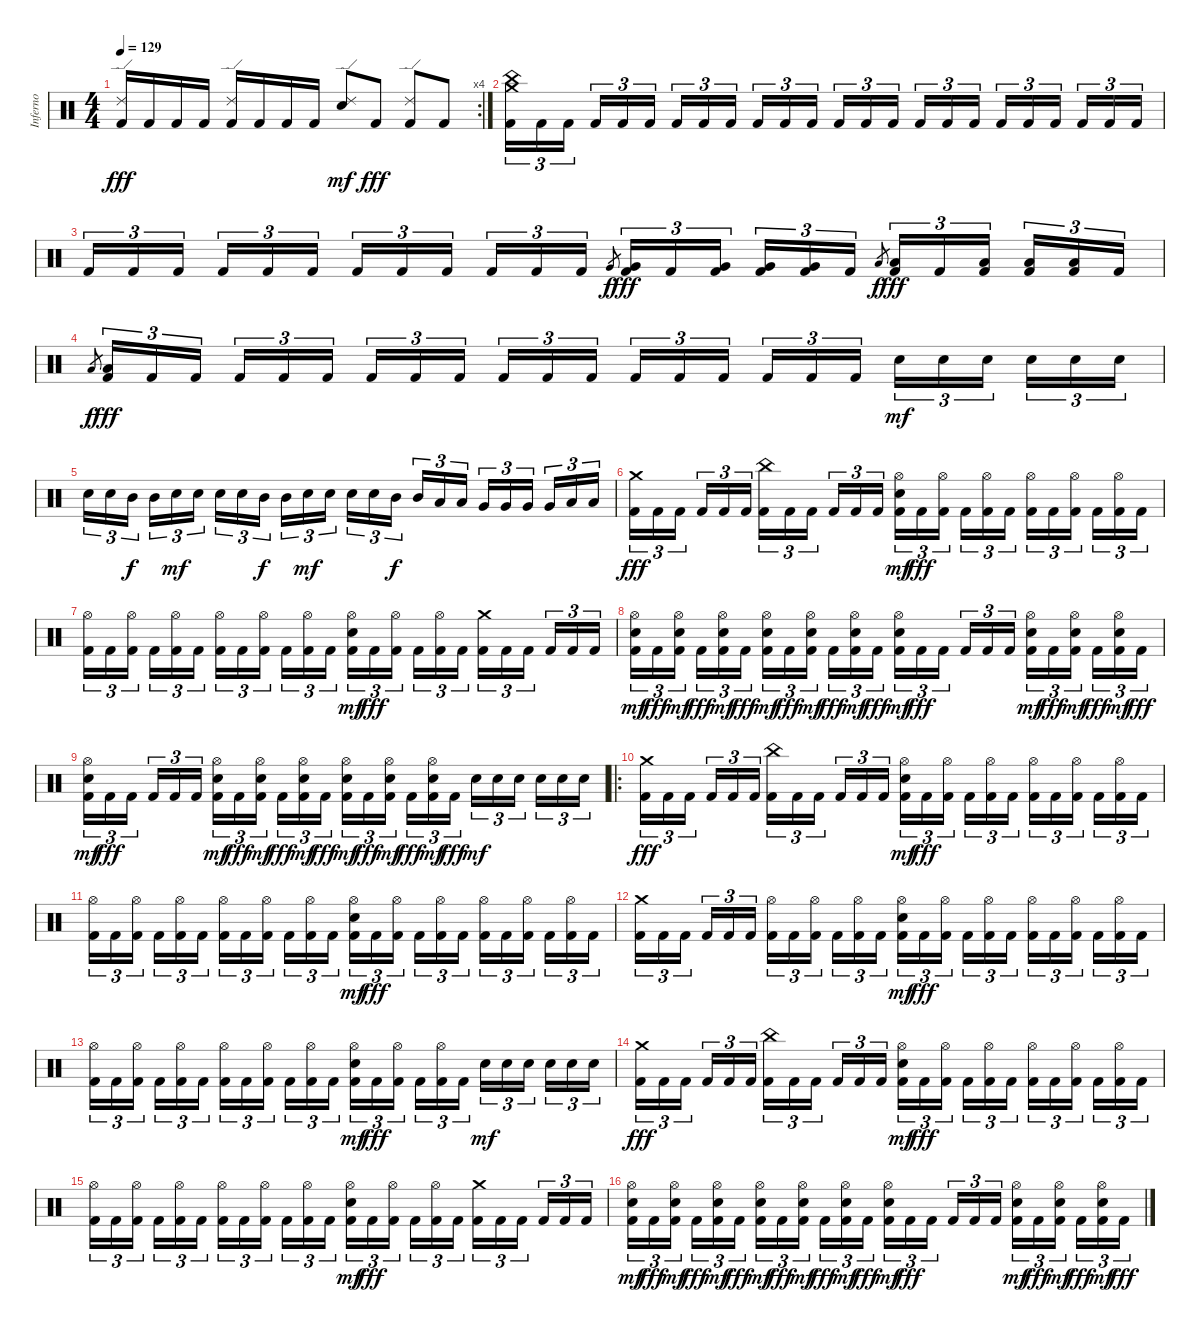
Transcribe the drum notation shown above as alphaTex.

\track ("Inferno" "Inferno") {instrument percussion}
\staff {score}
\articulation defaults
\rc 4
\ts (4 4)
\tempo 129
\clef neutral
\ks c
("Kick (hit) 2" "Ride (edge) 2").16{dy fff} "Kick (hit) 2".16 "Kick (hit) 2".16 "Kick (hit) 2".16 ("Kick (hit) 2" "Ride (edge) 2").16 "Kick (hit) 2".16 "Kick (hit) 2".16 "Kick (hit) 2".16 ("Electric Snare (hit)" "Ride (edge) 2").8{dy mf} "Kick (hit) 2".8{dy fff} ("Kick (hit) 2" "Ride (edge) 2").8 "Kick (hit) 2".8 |
("Kick (hit) 2" "Crash medium (hit)" "China (hit)").16{tu (3 2)} "Kick (hit) 2".16{tu (3 2)} "Kick (hit) 2".16{tu (3 2) beam splitsecondary} "Kick (hit) 2".16{tu (3 2)} "Kick (hit) 2".16{tu (3 2)} "Kick (hit) 2".16{tu (3 2)} "Kick (hit) 2".16{tu (3 2)} "Kick (hit) 2".16{tu (3 2)} "Kick (hit) 2".16{tu (3 2) beam splitsecondary} "Kick (hit) 2".16{tu (3 2)} "Kick (hit) 2".16{tu (3 2)} "Kick (hit) 2".16{tu (3 2)} "Kick (hit) 2".16{tu (3 2)} "Kick (hit) 2".16{tu (3 2)} "Kick (hit) 2".16{tu (3 2) beam splitsecondary} "Kick (hit) 2".16{tu (3 2)} "Kick (hit) 2".16{tu (3 2)} "Kick (hit) 2".16{tu (3 2)} "Kick (hit) 2".16{tu (3 2)} "Kick (hit) 2".16{tu (3 2)} "Kick (hit) 2".16{tu (3 2) beam splitsecondary} "Kick (hit) 2".16{tu (3 2)} "Kick (hit) 2".16{tu (3 2)} "Kick (hit) 2".16{tu (3 2)} |
"Kick (hit) 2".16{tu (3 2)} "Kick (hit) 2".16{tu (3 2)} "Kick (hit) 2".16{tu (3 2) beam splitsecondary} "Kick (hit) 2".16{tu (3 2)} "Kick (hit) 2".16{tu (3 2)} "Kick (hit) 2".16{tu (3 2)} "Kick (hit) 2".16{tu (3 2)} "Kick (hit) 2".16{tu (3 2)} "Kick (hit) 2".16{tu (3 2) beam splitsecondary} "Kick (hit) 2".16{tu (3 2)} "Kick (hit) 2".16{tu (3 2)} "Kick (hit) 2".16{tu (3 2)} "Very Low Tom (hit)".8{gr dy f} ("Kick (hit) 2" "Very Low Tom (hit)").16{tu (3 2) dy fff} "Kick (hit) 2".16{tu (3 2)} ("Kick (hit) 2" "Very Low Tom (hit)").16{tu (3 2) beam splitsecondary} ("Kick (hit) 2" "Very Low Tom (hit)").16{tu (3 2)} ("Kick (hit) 2" "Very Low Tom (hit)").16{tu (3 2)} "Kick (hit) 2".16{tu (3 2)} "Low Floor Tom (hit)".8{gr dy f} ("Kick (hit) 2" "Low Floor Tom (hit)").16{tu (3 2) dy fff} "Kick (hit) 2".16{tu (3 2)} ("Kick (hit) 2" "Low Floor Tom (hit)").16{tu (3 2) beam splitsecondary} ("Kick (hit) 2" "Low Floor Tom (hit)").16{tu (3 2)} ("Kick (hit) 2" "Low Floor Tom (hit)").16{tu (3 2)} "Kick (hit) 2".16{tu (3 2)} |
"Low Floor Tom (hit)".8{gr dy f} ("Kick (hit) 2" "Low Floor Tom (hit)").16{tu (3 2) dy fff} "Kick (hit) 2".16{tu (3 2)} "Kick (hit) 2".16{tu (3 2) beam splitsecondary} "Kick (hit) 2".16{tu (3 2)} "Kick (hit) 2".16{tu (3 2)} "Kick (hit) 2".16{tu (3 2)} "Kick (hit) 2".16{tu (3 2)} "Kick (hit) 2".16{tu (3 2)} "Kick (hit) 2".16{tu (3 2) beam splitsecondary} "Kick (hit) 2".16{tu (3 2)} "Kick (hit) 2".16{tu (3 2)} "Kick (hit) 2".16{tu (3 2)} "Kick (hit) 2".16{tu (3 2)} "Kick (hit) 2".16{tu (3 2)} "Kick (hit) 2".16{tu (3 2) beam splitsecondary} "Kick (hit) 2".16{tu (3 2)} "Kick (hit) 2".16{tu (3 2)} "Kick (hit) 2".16{tu (3 2)} "Electric Snare (hit)".16{tu (3 2) dy mf} "Electric Snare (hit)".16{tu (3 2)} "Electric Snare (hit)".16{tu (3 2) beam splitsecondary} "Electric Snare (hit)".16{tu (3 2)} "Electric Snare (hit)".16{tu (3 2)} "Electric Snare (hit)".16{tu (3 2)} |
"Electric Snare (hit)".16{tu (3 2)} "Electric Snare (hit)".16{tu (3 2)} "Mid Tom (hit)".16{tu (3 2) dy f beam splitsecondary} "Mid Tom (hit)".16{tu (3 2)} "Electric Snare (hit)".16{tu (3 2) dy mf} "Electric Snare (hit)".16{tu (3 2)} "Electric Snare (hit)".16{tu (3 2)} "Electric Snare (hit)".16{tu (3 2)} "Mid Tom (hit)".16{tu (3 2) dy f beam splitsecondary} "Mid Tom (hit)".16{tu (3 2)} "Electric Snare (hit)".16{tu (3 2) dy mf} "Electric Snare (hit)".16{tu (3 2)} "Electric Snare (hit)".16{tu (3 2)} "Electric Snare (hit)".16{tu (3 2)} "Mid Tom (hit)".16{tu (3 2) dy f beam splitsecondary} "Mid Tom (hit)".16{tu (3 2)} "Low Tom (hit)".16{tu (3 2)} "Low Tom (hit)".16{tu (3 2)} "Very Low Tom (hit)".16{tu (3 2)} "Very Low Tom (hit)".16{tu (3 2)} "Very Low Tom (hit)".16{tu (3 2) beam splitsecondary} "Very Low Tom (hit)".16{tu (3 2)} "Low Floor Tom (hit)".16{tu (3 2)} "Low Floor Tom (hit)".16{tu (3 2)} |
("Kick (hit) 2" "Crash medium (hit)").16{tu (3 2) dy fff} "Kick (hit) 2".16{tu (3 2)} "Kick (hit) 2".16{tu (3 2) beam splitsecondary} "Kick (hit) 2".16{tu (3 2)} "Kick (hit) 2".16{tu (3 2)} "Kick (hit) 2".16{tu (3 2)} ("Kick (hit) 2" "China (hit)").16{tu (3 2)} "Kick (hit) 2".16{tu (3 2)} "Kick (hit) 2".16{tu (3 2) beam splitsecondary} "Kick (hit) 2".16{tu (3 2)} "Kick (hit) 2".16{tu (3 2)} "Kick (hit) 2".16{tu (3 2)} ("Kick (hit) 2" "Electric Snare (hit)" "Hi-Hat (open)").16{tu (3 2) dy mf} "Kick (hit) 2".16{tu (3 2) dy fff} ("Kick (hit) 2" "Hi-Hat (open)").16{tu (3 2) beam splitsecondary} "Kick (hit) 2".16{tu (3 2)} ("Kick (hit) 2" "Hi-Hat (open)").16{tu (3 2)} "Kick (hit) 2".16{tu (3 2)} ("Kick (hit) 2" "Hi-Hat (open)").16{tu (3 2)} "Kick (hit) 2".16{tu (3 2)} ("Kick (hit) 2" "Hi-Hat (open)").16{tu (3 2) beam splitsecondary} "Kick (hit) 2".16{tu (3 2)} ("Kick (hit) 2" "Hi-Hat (open)").16{tu (3 2)} "Kick (hit) 2".16{tu (3 2)} |
("Kick (hit) 2" "Hi-Hat (open)").16{tu (3 2)} "Kick (hit) 2".16{tu (3 2)} ("Kick (hit) 2" "Hi-Hat (open)").16{tu (3 2) beam splitsecondary} "Kick (hit) 2".16{tu (3 2)} ("Kick (hit) 2" "Hi-Hat (open)").16{tu (3 2)} "Kick (hit) 2".16{tu (3 2)} ("Kick (hit) 2" "Hi-Hat (open)").16{tu (3 2)} "Kick (hit) 2".16{tu (3 2)} ("Kick (hit) 2" "Hi-Hat (open)").16{tu (3 2) beam splitsecondary} "Kick (hit) 2".16{tu (3 2)} ("Kick (hit) 2" "Hi-Hat (open)").16{tu (3 2)} "Kick (hit) 2".16{tu (3 2)} ("Kick (hit) 2" "Electric Snare (hit)" "Hi-Hat (open)").16{tu (3 2) dy mf} "Kick (hit) 2".16{tu (3 2) dy fff} ("Kick (hit) 2" "Hi-Hat (open)").16{tu (3 2) beam splitsecondary} "Kick (hit) 2".16{tu (3 2)} ("Kick (hit) 2" "Hi-Hat (open)").16{tu (3 2)} "Kick (hit) 2".16{tu (3 2)} ("Kick (hit) 2" "Crash medium (hit)").16{tu (3 2)} "Kick (hit) 2".16{tu (3 2)} "Kick (hit) 2".16{tu (3 2) beam splitsecondary} "Kick (hit) 2".16{tu (3 2)} "Kick (hit) 2".16{tu (3 2)} "Kick (hit) 2".16{tu (3 2)} |
("Kick (hit) 2" "Electric Snare (hit)" "Hi-Hat (open)").16{tu (3 2) dy mf} "Kick (hit) 2".16{tu (3 2) dy fff} ("Kick (hit) 2" "Electric Snare (hit)" "Hi-Hat (open)").16{tu (3 2) dy mf beam splitsecondary} "Kick (hit) 2".16{tu (3 2) dy fff} ("Kick (hit) 2" "Electric Snare (hit)" "Hi-Hat (open)").16{tu (3 2) dy mf} "Kick (hit) 2".16{tu (3 2) dy fff} ("Kick (hit) 2" "Electric Snare (hit)" "Hi-Hat (open)").16{tu (3 2) dy mf} "Kick (hit) 2".16{tu (3 2) dy fff} ("Kick (hit) 2" "Electric Snare (hit)" "Hi-Hat (open)").16{tu (3 2) dy mf beam splitsecondary} "Kick (hit) 2".16{tu (3 2) dy fff} ("Kick (hit) 2" "Electric Snare (hit)" "Hi-Hat (open)").16{tu (3 2) dy mf} "Kick (hit) 2".16{tu (3 2) dy fff} ("Kick (hit) 2" "Electric Snare (hit)" "Hi-Hat (open)").16{tu (3 2) dy mf} "Kick (hit) 2".16{tu (3 2) dy fff} "Kick (hit) 2".16{tu (3 2) beam splitsecondary} "Kick (hit) 2".16{tu (3 2)} "Kick (hit) 2".16{tu (3 2)} "Kick (hit) 2".16{tu (3 2)} ("Kick (hit) 2" "Electric Snare (hit)" "Hi-Hat (open)").16{tu (3 2) dy mf} "Kick (hit) 2".16{tu (3 2) dy fff} ("Kick (hit) 2" "Electric Snare (hit)" "Hi-Hat (open)").16{tu (3 2) dy mf beam splitsecondary} "Kick (hit) 2".16{tu (3 2) dy fff} ("Kick (hit) 2" "Electric Snare (hit)" "Hi-Hat (open)").16{tu (3 2) dy mf} "Kick (hit) 2".16{tu (3 2) dy fff} |
("Kick (hit) 2" "Electric Snare (hit)" "Hi-Hat (open)").16{tu (3 2) dy mf} "Kick (hit) 2".16{tu (3 2) dy fff} "Kick (hit) 2".16{tu (3 2) beam splitsecondary} "Kick (hit) 2".16{tu (3 2)} "Kick (hit) 2".16{tu (3 2)} "Kick (hit) 2".16{tu (3 2)} ("Kick (hit) 2" "Electric Snare (hit)" "Hi-Hat (open)").16{tu (3 2) dy mf} "Kick (hit) 2".16{tu (3 2) dy fff} ("Kick (hit) 2" "Electric Snare (hit)" "Hi-Hat (open)").16{tu (3 2) dy mf beam splitsecondary} "Kick (hit) 2".16{tu (3 2) dy fff} ("Kick (hit) 2" "Electric Snare (hit)" "Hi-Hat (open)").16{tu (3 2) dy mf} "Kick (hit) 2".16{tu (3 2) dy fff} ("Kick (hit) 2" "Electric Snare (hit)" "Hi-Hat (open)").16{tu (3 2) dy mf} "Kick (hit) 2".16{tu (3 2) dy fff} ("Kick (hit) 2" "Electric Snare (hit)" "Hi-Hat (open)").16{tu (3 2) dy mf beam splitsecondary} "Kick (hit) 2".16{tu (3 2) dy fff} ("Kick (hit) 2" "Electric Snare (hit)" "Hi-Hat (open)").16{tu (3 2) dy mf} "Kick (hit) 2".16{tu (3 2) dy fff} "Electric Snare (hit)".16{tu (3 2) dy mf} "Electric Snare (hit)".16{tu (3 2)} "Electric Snare (hit)".16{tu (3 2) beam splitsecondary} "Electric Snare (hit)".16{tu (3 2)} "Electric Snare (hit)".16{tu (3 2)} "Electric Snare (hit)".16{tu (3 2)} |
\ro
("Kick (hit) 2" "Crash medium (hit)").16{tu (3 2) dy fff} "Kick (hit) 2".16{tu (3 2)} "Kick (hit) 2".16{tu (3 2) beam splitsecondary} "Kick (hit) 2".16{tu (3 2)} "Kick (hit) 2".16{tu (3 2)} "Kick (hit) 2".16{tu (3 2)} ("Kick (hit) 2" "China (hit)").16{tu (3 2)} "Kick (hit) 2".16{tu (3 2)} "Kick (hit) 2".16{tu (3 2) beam splitsecondary} "Kick (hit) 2".16{tu (3 2)} "Kick (hit) 2".16{tu (3 2)} "Kick (hit) 2".16{tu (3 2)} ("Kick (hit) 2" "Electric Snare (hit)" "Hi-Hat (open)").16{tu (3 2) dy mf} "Kick (hit) 2".16{tu (3 2) dy fff} ("Kick (hit) 2" "Hi-Hat (open)").16{tu (3 2) beam splitsecondary} "Kick (hit) 2".16{tu (3 2)} ("Kick (hit) 2" "Hi-Hat (open)").16{tu (3 2)} "Kick (hit) 2".16{tu (3 2)} ("Kick (hit) 2" "Hi-Hat (open)").16{tu (3 2)} "Kick (hit) 2".16{tu (3 2)} ("Kick (hit) 2" "Hi-Hat (open)").16{tu (3 2) beam splitsecondary} "Kick (hit) 2".16{tu (3 2)} ("Kick (hit) 2" "Hi-Hat (open)").16{tu (3 2)} "Kick (hit) 2".16{tu (3 2)} |
("Kick (hit) 2" "Hi-Hat (open)").16{tu (3 2)} "Kick (hit) 2".16{tu (3 2)} ("Kick (hit) 2" "Hi-Hat (open)").16{tu (3 2) beam splitsecondary} "Kick (hit) 2".16{tu (3 2)} ("Kick (hit) 2" "Hi-Hat (open)").16{tu (3 2)} "Kick (hit) 2".16{tu (3 2)} ("Kick (hit) 2" "Hi-Hat (open)").16{tu (3 2)} "Kick (hit) 2".16{tu (3 2)} ("Kick (hit) 2" "Hi-Hat (open)").16{tu (3 2) beam splitsecondary} "Kick (hit) 2".16{tu (3 2)} ("Kick (hit) 2" "Hi-Hat (open)").16{tu (3 2)} "Kick (hit) 2".16{tu (3 2)} ("Kick (hit) 2" "Electric Snare (hit)" "Hi-Hat (open)").16{tu (3 2) dy mf} "Kick (hit) 2".16{tu (3 2) dy fff} ("Kick (hit) 2" "Hi-Hat (open)").16{tu (3 2) beam splitsecondary} "Kick (hit) 2".16{tu (3 2)} ("Kick (hit) 2" "Hi-Hat (open)").16{tu (3 2)} "Kick (hit) 2".16{tu (3 2)} ("Kick (hit) 2" "Hi-Hat (open)").16{tu (3 2)} "Kick (hit) 2".16{tu (3 2)} ("Kick (hit) 2" "Hi-Hat (open)").16{tu (3 2) beam splitsecondary} "Kick (hit) 2".16{tu (3 2)} ("Kick (hit) 2" "Hi-Hat (open)").16{tu (3 2)} "Kick (hit) 2".16{tu (3 2)} |
("Kick (hit) 2" "Crash medium (hit)").16{tu (3 2)} "Kick (hit) 2".16{tu (3 2)} "Kick (hit) 2".16{tu (3 2) beam splitsecondary} "Kick (hit) 2".16{tu (3 2)} "Kick (hit) 2".16{tu (3 2)} "Kick (hit) 2".16{tu (3 2)} ("Kick (hit) 2" "Hi-Hat (open)").16{tu (3 2)} "Kick (hit) 2".16{tu (3 2)} ("Kick (hit) 2" "Hi-Hat (open)").16{tu (3 2) beam splitsecondary} "Kick (hit) 2".16{tu (3 2)} ("Kick (hit) 2" "Hi-Hat (open)").16{tu (3 2)} "Kick (hit) 2".16{tu (3 2)} ("Kick (hit) 2" "Electric Snare (hit)" "Hi-Hat (open)").16{tu (3 2) dy mf} "Kick (hit) 2".16{tu (3 2) dy fff} ("Kick (hit) 2" "Hi-Hat (open)").16{tu (3 2) beam splitsecondary} "Kick (hit) 2".16{tu (3 2)} ("Kick (hit) 2" "Hi-Hat (open)").16{tu (3 2)} "Kick (hit) 2".16{tu (3 2)} ("Kick (hit) 2" "Hi-Hat (open)").16{tu (3 2)} "Kick (hit) 2".16{tu (3 2)} ("Kick (hit) 2" "Hi-Hat (open)").16{tu (3 2) beam splitsecondary} "Kick (hit) 2".16{tu (3 2)} ("Kick (hit) 2" "Hi-Hat (open)").16{tu (3 2)} "Kick (hit) 2".16{tu (3 2)} |
("Kick (hit) 2" "Hi-Hat (open)").16{tu (3 2)} "Kick (hit) 2".16{tu (3 2)} ("Kick (hit) 2" "Hi-Hat (open)").16{tu (3 2) beam splitsecondary} "Kick (hit) 2".16{tu (3 2)} ("Kick (hit) 2" "Hi-Hat (open)").16{tu (3 2)} "Kick (hit) 2".16{tu (3 2)} ("Kick (hit) 2" "Hi-Hat (open)").16{tu (3 2)} "Kick (hit) 2".16{tu (3 2)} ("Kick (hit) 2" "Hi-Hat (open)").16{tu (3 2) beam splitsecondary} "Kick (hit) 2".16{tu (3 2)} ("Kick (hit) 2" "Hi-Hat (open)").16{tu (3 2)} "Kick (hit) 2".16{tu (3 2)} ("Kick (hit) 2" "Electric Snare (hit)" "Hi-Hat (open)").16{tu (3 2) dy mf} "Kick (hit) 2".16{tu (3 2) dy fff} ("Kick (hit) 2" "Hi-Hat (open)").16{tu (3 2) beam splitsecondary} "Kick (hit) 2".16{tu (3 2)} ("Kick (hit) 2" "Hi-Hat (open)").16{tu (3 2)} "Kick (hit) 2".16{tu (3 2)} "Electric Snare (hit)".16{tu (3 2) dy mf} "Electric Snare (hit)".16{tu (3 2)} "Electric Snare (hit)".16{tu (3 2) beam splitsecondary} "Electric Snare (hit)".16{tu (3 2)} "Electric Snare (hit)".16{tu (3 2)} "Electric Snare (hit)".16{tu (3 2)} |
("Kick (hit) 2" "Crash medium (hit)").16{tu (3 2) dy fff} "Kick (hit) 2".16{tu (3 2)} "Kick (hit) 2".16{tu (3 2) beam splitsecondary} "Kick (hit) 2".16{tu (3 2)} "Kick (hit) 2".16{tu (3 2)} "Kick (hit) 2".16{tu (3 2)} ("Kick (hit) 2" "China (hit)").16{tu (3 2)} "Kick (hit) 2".16{tu (3 2)} "Kick (hit) 2".16{tu (3 2) beam splitsecondary} "Kick (hit) 2".16{tu (3 2)} "Kick (hit) 2".16{tu (3 2)} "Kick (hit) 2".16{tu (3 2)} ("Kick (hit) 2" "Electric Snare (hit)" "Hi-Hat (open)").16{tu (3 2) dy mf} "Kick (hit) 2".16{tu (3 2) dy fff} ("Kick (hit) 2" "Hi-Hat (open)").16{tu (3 2) beam splitsecondary} "Kick (hit) 2".16{tu (3 2)} ("Kick (hit) 2" "Hi-Hat (open)").16{tu (3 2)} "Kick (hit) 2".16{tu (3 2)} ("Kick (hit) 2" "Hi-Hat (open)").16{tu (3 2)} "Kick (hit) 2".16{tu (3 2)} ("Kick (hit) 2" "Hi-Hat (open)").16{tu (3 2) beam splitsecondary} "Kick (hit) 2".16{tu (3 2)} ("Kick (hit) 2" "Hi-Hat (open)").16{tu (3 2)} "Kick (hit) 2".16{tu (3 2)} |
("Kick (hit) 2" "Hi-Hat (open)").16{tu (3 2)} "Kick (hit) 2".16{tu (3 2)} ("Kick (hit) 2" "Hi-Hat (open)").16{tu (3 2) beam splitsecondary} "Kick (hit) 2".16{tu (3 2)} ("Kick (hit) 2" "Hi-Hat (open)").16{tu (3 2)} "Kick (hit) 2".16{tu (3 2)} ("Kick (hit) 2" "Hi-Hat (open)").16{tu (3 2)} "Kick (hit) 2".16{tu (3 2)} ("Kick (hit) 2" "Hi-Hat (open)").16{tu (3 2) beam splitsecondary} "Kick (hit) 2".16{tu (3 2)} ("Kick (hit) 2" "Hi-Hat (open)").16{tu (3 2)} "Kick (hit) 2".16{tu (3 2)} ("Kick (hit) 2" "Electric Snare (hit)" "Hi-Hat (open)").16{tu (3 2) dy mf} "Kick (hit) 2".16{tu (3 2) dy fff} ("Kick (hit) 2" "Hi-Hat (open)").16{tu (3 2) beam splitsecondary} "Kick (hit) 2".16{tu (3 2)} ("Kick (hit) 2" "Hi-Hat (open)").16{tu (3 2)} "Kick (hit) 2".16{tu (3 2)} ("Kick (hit) 2" "Crash medium (hit)").16{tu (3 2)} "Kick (hit) 2".16{tu (3 2)} "Kick (hit) 2".16{tu (3 2) beam splitsecondary} "Kick (hit) 2".16{tu (3 2)} "Kick (hit) 2".16{tu (3 2)} "Kick (hit) 2".16{tu (3 2)} |
("Kick (hit) 2" "Electric Snare (hit)" "Hi-Hat (open)").16{tu (3 2) dy mf} "Kick (hit) 2".16{tu (3 2) dy fff} ("Kick (hit) 2" "Electric Snare (hit)" "Hi-Hat (open)").16{tu (3 2) dy mf beam splitsecondary} "Kick (hit) 2".16{tu (3 2) dy fff} ("Kick (hit) 2" "Electric Snare (hit)" "Hi-Hat (open)").16{tu (3 2) dy mf} "Kick (hit) 2".16{tu (3 2) dy fff} ("Kick (hit) 2" "Electric Snare (hit)" "Hi-Hat (open)").16{tu (3 2) dy mf} "Kick (hit) 2".16{tu (3 2) dy fff} ("Kick (hit) 2" "Electric Snare (hit)" "Hi-Hat (open)").16{tu (3 2) dy mf beam splitsecondary} "Kick (hit) 2".16{tu (3 2) dy fff} ("Kick (hit) 2" "Electric Snare (hit)" "Hi-Hat (open)").16{tu (3 2) dy mf} "Kick (hit) 2".16{tu (3 2) dy fff} ("Kick (hit) 2" "Electric Snare (hit)" "Hi-Hat (open)").16{tu (3 2) dy mf} "Kick (hit) 2".16{tu (3 2) dy fff} "Kick (hit) 2".16{tu (3 2) beam splitsecondary} "Kick (hit) 2".16{tu (3 2)} "Kick (hit) 2".16{tu (3 2)} "Kick (hit) 2".16{tu (3 2)} ("Kick (hit) 2" "Electric Snare (hit)" "Hi-Hat (open)").16{tu (3 2) dy mf} "Kick (hit) 2".16{tu (3 2) dy fff} ("Kick (hit) 2" "Electric Snare (hit)" "Hi-Hat (open)").16{tu (3 2) dy mf beam splitsecondary} "Kick (hit) 2".16{tu (3 2) dy fff} ("Kick (hit) 2" "Electric Snare (hit)" "Hi-Hat (open)").16{tu (3 2) dy mf} "Kick (hit) 2".16{tu (3 2) dy fff}
